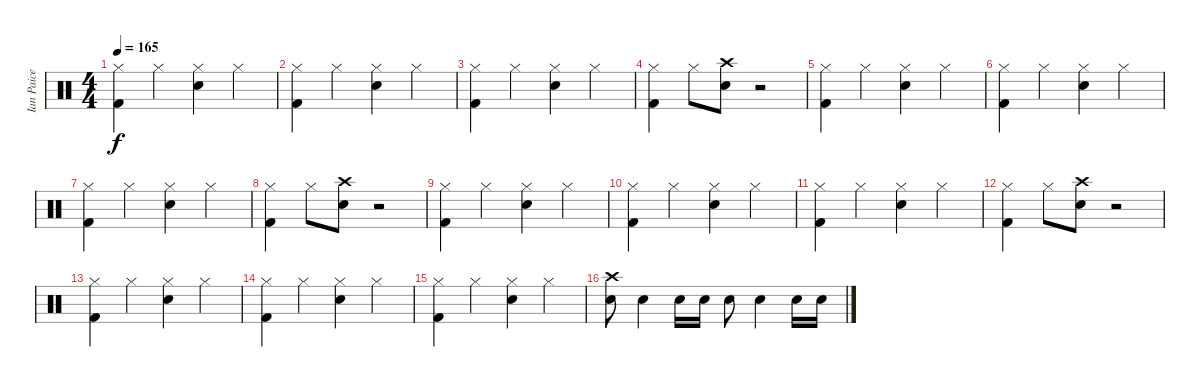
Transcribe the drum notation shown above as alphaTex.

\track ("Ian Paice" "Ian Paice") {instrument percussion}
\staff {score}
\articulation defaults
\ts (4 4)
\tempo 165
\clef neutral
\ks c
("Hi-Hat (closed)" "Kick (hit) 2").4{dy f} "Hi-Hat (closed)".4 ("Hi-Hat (closed)" "Snare (hit) 2").4 "Hi-Hat (closed)".4 |
("Hi-Hat (closed)" "Kick (hit) 2").4 "Hi-Hat (closed)".4 ("Hi-Hat (closed)" "Snare (hit) 2").4 "Hi-Hat (closed)".4 |
("Hi-Hat (closed)" "Kick (hit) 2").4 "Hi-Hat (closed)".4 ("Hi-Hat (closed)" "Snare (hit) 2").4 "Hi-Hat (closed)".4 |
("Hi-Hat (closed)" "Kick (hit) 2").4 "Hi-Hat (closed)".8 ("Crash high (hit)" "Snare (hit) 2").8 r.2 |
("Hi-Hat (closed)" "Kick (hit) 2").4 "Hi-Hat (closed)".4 ("Hi-Hat (closed)" "Snare (hit) 2").4 "Hi-Hat (closed)".4 |
("Hi-Hat (closed)" "Kick (hit) 2").4 "Hi-Hat (closed)".4 ("Hi-Hat (closed)" "Snare (hit) 2").4 "Hi-Hat (closed)".4 |
("Hi-Hat (closed)" "Kick (hit) 2").4 "Hi-Hat (closed)".4 ("Hi-Hat (closed)" "Snare (hit) 2").4 "Hi-Hat (closed)".4 |
("Hi-Hat (closed)" "Kick (hit) 2").4 "Hi-Hat (closed)".8 ("Crash high (hit)" "Snare (hit) 2").8 r.2 |
("Hi-Hat (closed)" "Kick (hit) 2").4 "Hi-Hat (closed)".4 ("Hi-Hat (closed)" "Snare (hit) 2").4 "Hi-Hat (closed)".4 |
("Hi-Hat (closed)" "Kick (hit) 2").4 "Hi-Hat (closed)".4 ("Hi-Hat (closed)" "Snare (hit) 2").4 "Hi-Hat (closed)".4 |
("Hi-Hat (closed)" "Kick (hit) 2").4 "Hi-Hat (closed)".4 ("Hi-Hat (closed)" "Snare (hit) 2").4 "Hi-Hat (closed)".4 |
("Hi-Hat (closed)" "Kick (hit) 2").4 "Hi-Hat (closed)".8 ("Crash high (hit)" "Snare (hit) 2").8 r.2 |
("Hi-Hat (closed)" "Kick (hit) 2").4 "Hi-Hat (closed)".4 ("Hi-Hat (closed)" "Snare (hit) 2").4 "Hi-Hat (closed)".4 |
("Hi-Hat (closed)" "Kick (hit) 2").4 "Hi-Hat (closed)".4 ("Hi-Hat (closed)" "Snare (hit) 2").4 "Hi-Hat (closed)".4 |
("Hi-Hat (closed)" "Kick (hit) 2").4 "Hi-Hat (closed)".4 ("Hi-Hat (closed)" "Snare (hit) 2").4 "Hi-Hat (closed)".4 |
("Crash high (hit)" "Snare (hit) 2").8{volume 13} "Snare (hit) 2".4 "Snare (hit) 2".16 "Snare (hit) 2".16 "Snare (hit) 2".8 "Snare (hit) 2".4 "Snare (hit) 2".16 "Snare (hit) 2".16
